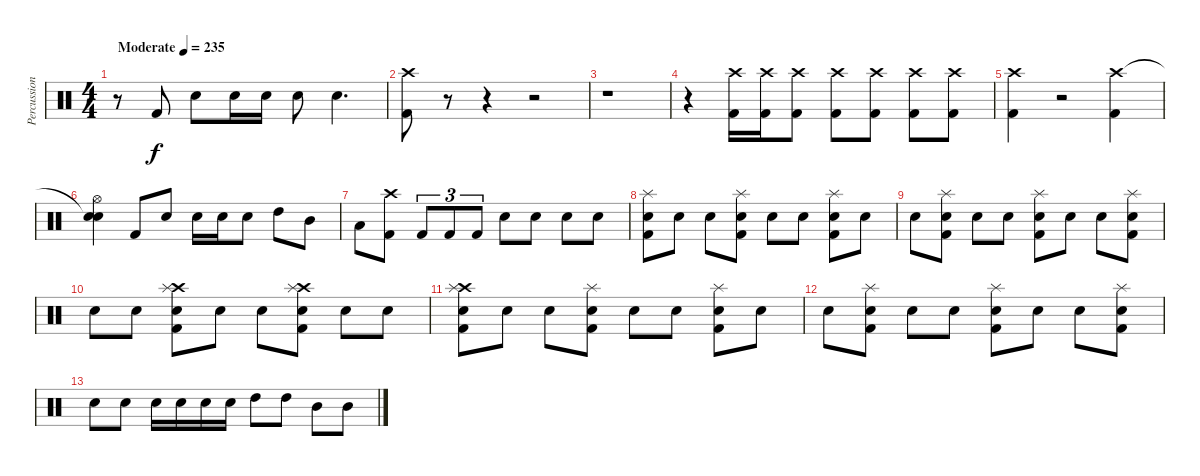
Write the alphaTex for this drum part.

\track ("Percussion" "Percussion") {instrument percussion}
\staff {score}
\articulation defaults
\ts (4 4)
\tempo (235 "Moderate")
\clef neutral
\ks c
r.8{dy f} "Kick (hit) 2".8 "Electric Snare (hit)".8 "Electric Snare (hit)".16 "Electric Snare (hit)".16 "Electric Snare (hit)".8 "Electric Snare (hit)".4{d} |
("Crash high (hit)" "Kick (hit) 2").8 r.8 r.4 r.2 |
r.1 |
r.4 ("Crash high (hit)" "Kick (hit) 2").16 ("Crash high (hit)" "Kick (hit) 2").16 ("Crash high (hit)" "Kick (hit) 2").8 ("Crash high (hit)" "Kick (hit) 2").8 ("Crash high (hit)" "Kick (hit) 2").8 ("Crash high (hit)" "Kick (hit) 2").8 ("Crash high (hit)" "Kick (hit) 2").8 |
("Crash high (hit)" "Kick (hit) 2").4 r.2 ("Crash high (hit)" "Kick (hit) 2").4 |
("Snare (hit)"{t} "Hi-Hat (open)" "Snare (hit)").4 "Kick (hit) 2".8 "Electric Snare (hit)".8 "Electric Snare (hit)".16 "Electric Snare (hit)".16 "Electric Snare (hit)".8 "High Tom (hit)".8 "Mid Tom (hit)".8 |
"Low Tom (hit)".8 ("Crash high (hit)" "Kick (hit) 2").8 "Kick (hit) 2".8{tu (3 2)} "Kick (hit) 2".8{tu (3 2)} "Kick (hit) 2".8{tu (3 2)} "Electric Snare (hit)".8 "Electric Snare (hit)".8 "Electric Snare (hit)".8 "Electric Snare (hit)".8 |
("Splash (hit)" "Electric Snare (hit)" "Kick (hit) 2").8 "Electric Snare (hit)".8 "Electric Snare (hit)".8 ("Splash (hit)" "Electric Snare (hit)" "Kick (hit) 2").8 "Electric Snare (hit)".8 "Electric Snare (hit)".8 ("Splash (hit)" "Electric Snare (hit)" "Kick (hit) 2").8 "Electric Snare (hit)".8 |
"Electric Snare (hit)".8 ("Splash (hit)" "Electric Snare (hit)" "Kick (hit) 2").8 "Electric Snare (hit)".8 "Electric Snare (hit)".8 ("Splash (hit)" "Electric Snare (hit)" "Kick (hit) 2").8 "Electric Snare (hit)".8 "Electric Snare (hit)".8 ("Splash (hit)" "Electric Snare (hit)" "Kick (hit) 2").8 |
"Electric Snare (hit)".8 "Electric Snare (hit)".8 ("Crash high (hit)" "Splash (hit)" "Electric Snare (hit)" "Kick (hit) 2").8 "Electric Snare (hit)".8 "Electric Snare (hit)".8 ("Crash high (hit)" "Splash (hit)" "Electric Snare (hit)" "Kick (hit) 2").8 "Electric Snare (hit)".8 "Electric Snare (hit)".8 |
("Crash high (hit)" "Splash (hit)" "Electric Snare (hit)" "Kick (hit) 2").8 "Electric Snare (hit)".8 "Electric Snare (hit)".8 ("Splash (hit)" "Electric Snare (hit)" "Kick (hit) 2").8 "Electric Snare (hit)".8 "Electric Snare (hit)".8 ("Splash (hit)" "Electric Snare (hit)" "Kick (hit) 2").8 "Electric Snare (hit)".8 |
"Electric Snare (hit)".8 ("Splash (hit)" "Electric Snare (hit)" "Kick (hit) 2").8 "Electric Snare (hit)".8 "Electric Snare (hit)".8 ("Splash (hit)" "Electric Snare (hit)" "Kick (hit) 2").8 "Electric Snare (hit)".8 "Electric Snare (hit)".8 ("Splash (hit)" "Electric Snare (hit)" "Kick (hit) 2").8 |
"Electric Snare (hit)".8 "Electric Snare (hit)".8 "Electric Snare (hit)".16 "Electric Snare (hit)".16 "Electric Snare (hit)".16 "Electric Snare (hit)".16 "High Tom (hit)".8 "High Tom (hit)".8 "Mid Tom (hit)".8 "Mid Tom (hit)".8
